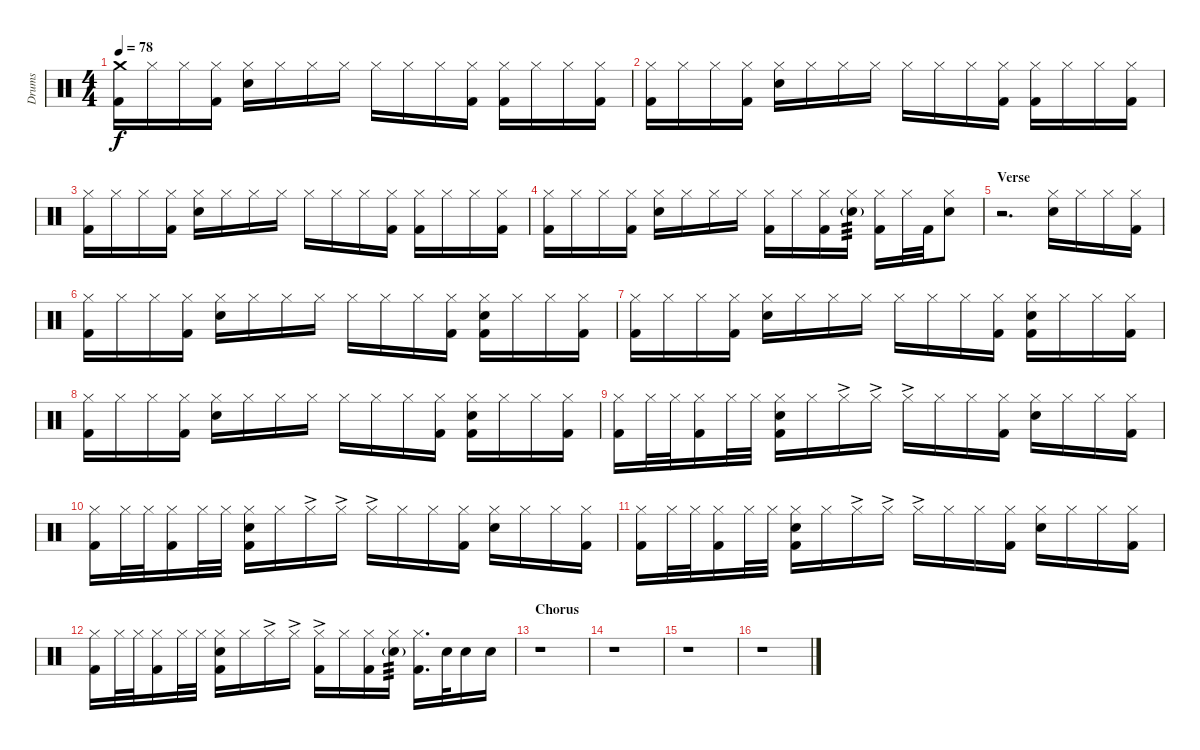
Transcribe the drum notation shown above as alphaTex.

\track ("Drums" "Drums") {instrument percussion}
\staff {score}
\articulation defaults
\ts (4 4)
\tempo 78
\clef neutral
\ks c
("Crash medium (hit)" "Kick (hit) 2").16{dy f} "Hi-Hat (closed)".16 "Hi-Hat (closed)".16 ("Hi-Hat (closed)" "Kick (hit) 2").16 ("Hi-Hat (closed)" "Snare (hit) 2").16 "Hi-Hat (closed)".16 "Hi-Hat (closed)".16 "Hi-Hat (closed)".16 "Hi-Hat (closed)".16 "Hi-Hat (closed)".16 "Hi-Hat (closed)".16 ("Hi-Hat (closed)" "Kick (hit) 2").16 ("Hi-Hat (closed)" "Kick (hit) 2").16 "Hi-Hat (closed)".16 "Hi-Hat (closed)".16 ("Hi-Hat (closed)" "Kick (hit) 2").16 |
("Hi-Hat (closed)" "Kick (hit) 2").16 "Hi-Hat (closed)".16 "Hi-Hat (closed)".16 ("Hi-Hat (closed)" "Kick (hit) 2").16 ("Hi-Hat (closed)" "Snare (hit) 2").16 "Hi-Hat (closed)".16 "Hi-Hat (closed)".16 "Hi-Hat (closed)".16 "Hi-Hat (closed)".16 "Hi-Hat (closed)".16 "Hi-Hat (closed)".16 ("Hi-Hat (closed)" "Kick (hit) 2").16 ("Hi-Hat (closed)" "Kick (hit) 2").16 "Hi-Hat (closed)".16 "Hi-Hat (closed)".16 ("Hi-Hat (closed)" "Kick (hit) 2").16 |
("Hi-Hat (closed)" "Kick (hit) 2").16 "Hi-Hat (closed)".16 "Hi-Hat (closed)".16 ("Hi-Hat (closed)" "Kick (hit) 2").16 ("Hi-Hat (closed)" "Snare (hit) 2").16 "Hi-Hat (closed)".16 "Hi-Hat (closed)".16 "Hi-Hat (closed)".16 "Hi-Hat (closed)".16 "Hi-Hat (closed)".16 "Hi-Hat (closed)".16 ("Hi-Hat (closed)" "Kick (hit) 2").16 ("Hi-Hat (closed)" "Kick (hit) 2").16 "Hi-Hat (closed)".16 "Hi-Hat (closed)".16 ("Hi-Hat (closed)" "Kick (hit) 2").16 |
("Hi-Hat (closed)" "Kick (hit) 2").16 "Hi-Hat (closed)".16 "Hi-Hat (closed)".16 ("Hi-Hat (closed)" "Kick (hit) 2").16 ("Hi-Hat (closed)" "Snare (hit) 2").16 "Hi-Hat (closed)".16 "Hi-Hat (closed)".16 "Hi-Hat (closed)".16 ("Hi-Hat (closed)" "Kick (hit) 2").16 "Hi-Hat (closed)".16 ("Hi-Hat (closed)" "Kick (hit) 2").16 ("Hi-Hat (closed)" "Snare (hit) 2"{g}).16{tp 3} ("Hi-Hat (closed)" "Kick (hit) 2").16 "Hi-Hat (closed)".32 "Kick (hit) 2".32 ("Hi-Hat (closed)" "Snare (hit) 2").8 |
\section ("" "Verse")
r.2{d} ("Hi-Hat (closed)" "Snare (hit) 2").16 "Hi-Hat (closed)".16 "Hi-Hat (closed)".16 ("Hi-Hat (closed)" "Kick (hit) 2").16 |
("Hi-Hat (closed)" "Kick (hit) 2").16 "Hi-Hat (closed)".16 "Hi-Hat (closed)".16 ("Hi-Hat (closed)" "Kick (hit) 2").16 ("Hi-Hat (closed)" "Snare (hit) 2").16 "Hi-Hat (closed)".16 "Hi-Hat (closed)".16 "Hi-Hat (closed)".16 "Hi-Hat (closed)".16 "Hi-Hat (closed)".16 "Hi-Hat (closed)".16 ("Hi-Hat (closed)" "Kick (hit) 2").16 ("Hi-Hat (closed)" "Snare (hit) 2" "Kick (hit) 2").16 "Hi-Hat (closed)".16 "Hi-Hat (closed)".16 ("Hi-Hat (closed)" "Kick (hit) 2").16 |
("Hi-Hat (closed)" "Kick (hit) 2").16 "Hi-Hat (closed)".16 "Hi-Hat (closed)".16 ("Hi-Hat (closed)" "Kick (hit) 2").16 ("Hi-Hat (closed)" "Snare (hit) 2").16 "Hi-Hat (closed)".16 "Hi-Hat (closed)".16 "Hi-Hat (closed)".16 "Hi-Hat (closed)".16 "Hi-Hat (closed)".16 "Hi-Hat (closed)".16 ("Hi-Hat (closed)" "Kick (hit) 2").16 ("Hi-Hat (closed)" "Snare (hit) 2" "Kick (hit) 2").16 "Hi-Hat (closed)".16 "Hi-Hat (closed)".16 ("Hi-Hat (closed)" "Kick (hit) 2").16 |
("Hi-Hat (closed)" "Kick (hit) 2").16 "Hi-Hat (closed)".16 "Hi-Hat (closed)".16 ("Hi-Hat (closed)" "Kick (hit) 2").16 ("Hi-Hat (closed)" "Snare (hit) 2").16 "Hi-Hat (closed)".16 "Hi-Hat (closed)".16 "Hi-Hat (closed)".16 "Hi-Hat (closed)".16 "Hi-Hat (closed)".16 "Hi-Hat (closed)".16 ("Hi-Hat (closed)" "Kick (hit) 2").16 ("Hi-Hat (closed)" "Snare (hit) 2" "Kick (hit) 2").16 "Hi-Hat (closed)".16 "Hi-Hat (closed)".16 ("Hi-Hat (closed)" "Kick (hit) 2").16 |
("Hi-Hat (closed)" "Kick (hit) 2").16 "Hi-Hat (closed)".32 "Hi-Hat (closed)".32 ("Hi-Hat (closed)" "Kick (hit) 2").16 "Hi-Hat (closed)".32 "Hi-Hat (closed)".32 ("Hi-Hat (closed)" "Snare (hit) 2" "Kick (hit) 2").16 "Hi-Hat (closed)".16 "Hi-Hat (closed)"{ac}.16 "Hi-Hat (closed)"{ac}.16 "Hi-Hat (closed)"{ac}.16 "Hi-Hat (closed)".16 "Hi-Hat (closed)".16 ("Hi-Hat (closed)" "Kick (hit) 2").16 ("Hi-Hat (closed)" "Snare (hit) 2").16 "Hi-Hat (closed)".16 "Hi-Hat (closed)".16 ("Hi-Hat (closed)" "Kick (hit) 2").16 |
("Hi-Hat (closed)" "Kick (hit) 2").16 "Hi-Hat (closed)".32 "Hi-Hat (closed)".32 ("Hi-Hat (closed)" "Kick (hit) 2").16 "Hi-Hat (closed)".32 "Hi-Hat (closed)".32 ("Hi-Hat (closed)" "Snare (hit) 2" "Kick (hit) 2").16 "Hi-Hat (closed)".16 "Hi-Hat (closed)"{ac}.16 "Hi-Hat (closed)"{ac}.16 "Hi-Hat (closed)"{ac}.16 "Hi-Hat (closed)".16 "Hi-Hat (closed)".16 ("Hi-Hat (closed)" "Kick (hit) 2").16 ("Hi-Hat (closed)" "Snare (hit) 2").16 "Hi-Hat (closed)".16 "Hi-Hat (closed)".16 ("Hi-Hat (closed)" "Kick (hit) 2").16 |
("Hi-Hat (closed)" "Kick (hit) 2").16 "Hi-Hat (closed)".32 "Hi-Hat (closed)".32 ("Hi-Hat (closed)" "Kick (hit) 2").16 "Hi-Hat (closed)".32 "Hi-Hat (closed)".32 ("Hi-Hat (closed)" "Snare (hit) 2" "Kick (hit) 2").16 "Hi-Hat (closed)".16 "Hi-Hat (closed)"{ac}.16 "Hi-Hat (closed)"{ac}.16 "Hi-Hat (closed)"{ac}.16 "Hi-Hat (closed)".16 "Hi-Hat (closed)".16 ("Hi-Hat (closed)" "Kick (hit) 2").16 ("Hi-Hat (closed)" "Snare (hit) 2").16 "Hi-Hat (closed)".16 "Hi-Hat (closed)".16 ("Hi-Hat (closed)" "Kick (hit) 2").16 |
("Hi-Hat (closed)" "Kick (hit) 2").16 "Hi-Hat (closed)".32 "Hi-Hat (closed)".32 ("Hi-Hat (closed)" "Kick (hit) 2").16 "Hi-Hat (closed)".32 "Hi-Hat (closed)".32 ("Hi-Hat (closed)" "Snare (hit) 2" "Kick (hit) 2").16 "Hi-Hat (closed)".16 "Hi-Hat (closed)"{ac}.16 "Hi-Hat (closed)"{ac}.16 ("Hi-Hat (closed)"{ac} "Kick (hit) 2").16 "Hi-Hat (closed)".16 ("Hi-Hat (closed)" "Kick (hit) 2").16 ("Hi-Hat (closed)" "Snare (hit) 2"{g}).16{tp 3} ("Hi-Hat (closed)" "Kick (hit) 2").16{d} "Snare (hit) 2".32 "Snare (hit) 2".16 "Snare (hit) 2".16 |
\section ("" "Chorus")
r.1 |
r.1 |
r.1 |
r.1
